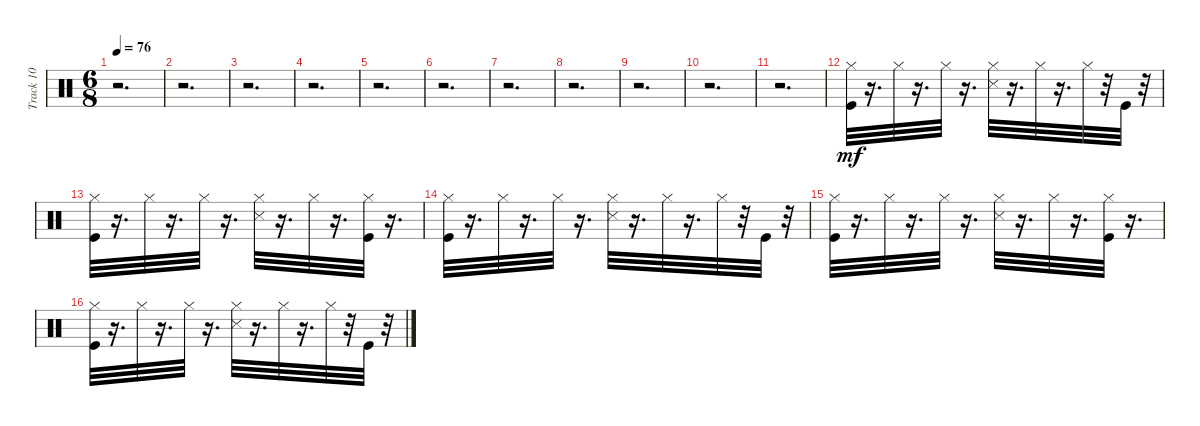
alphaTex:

\track ("Track 10" "Track 10") {instrument percussion}
\staff {score}
\articulation defaults
\ts (6 8)
\tempo 76
\clef neutral
\ks c
r.2{d dy mf} |
r.2{d} |
r.2{d} |
r.2{d} |
r.2{d} |
r.2{d} |
r.2{d} |
r.2{d} |
r.2{d} |
r.2{d} |
r.2{d} |
("Kick (hit)" "Hi-Hat (closed)").32 r.16{d} "Hi-Hat (closed)".32 r.16{d} "Hi-Hat (closed)".32 r.16{d} ("Snare (side stick) 3" "Hi-Hat (closed)").32 r.16{d} "Hi-Hat (closed)".32 r.16{d} "Hi-Hat (closed)".32 r.32 "Kick (hit)".32 r.32 |
("Kick (hit)" "Hi-Hat (closed)").32 r.16{d} "Hi-Hat (closed)".32 r.16{d} "Hi-Hat (closed)".32 r.16{d} ("Snare (side stick) 3" "Hi-Hat (closed)").32 r.16{d} "Hi-Hat (closed)".32 r.16{d} ("Kick (hit)" "Hi-Hat (closed)").32 r.16{d} |
("Kick (hit)" "Hi-Hat (closed)").32 r.16{d} "Hi-Hat (closed)".32 r.16{d} "Hi-Hat (closed)".32 r.16{d} ("Snare (side stick) 3" "Hi-Hat (closed)").32 r.16{d} "Hi-Hat (closed)".32 r.16{d} "Hi-Hat (closed)".32 r.32 "Kick (hit)".32 r.32 |
("Kick (hit)" "Hi-Hat (closed)").32 r.16{d} "Hi-Hat (closed)".32 r.16{d} "Hi-Hat (closed)".32 r.16{d} ("Snare (side stick) 3" "Hi-Hat (closed)").32 r.16{d} "Hi-Hat (closed)".32 r.16{d} ("Kick (hit)" "Hi-Hat (closed)").32 r.16{d} |
("Kick (hit)" "Hi-Hat (closed)").32 r.16{d} "Hi-Hat (closed)".32 r.16{d} "Hi-Hat (closed)".32 r.16{d} ("Snare (side stick) 3" "Hi-Hat (closed)").32 r.16{d} "Hi-Hat (closed)".32 r.16{d} "Hi-Hat (closed)".32 r.32 "Kick (hit)".32 r.32
